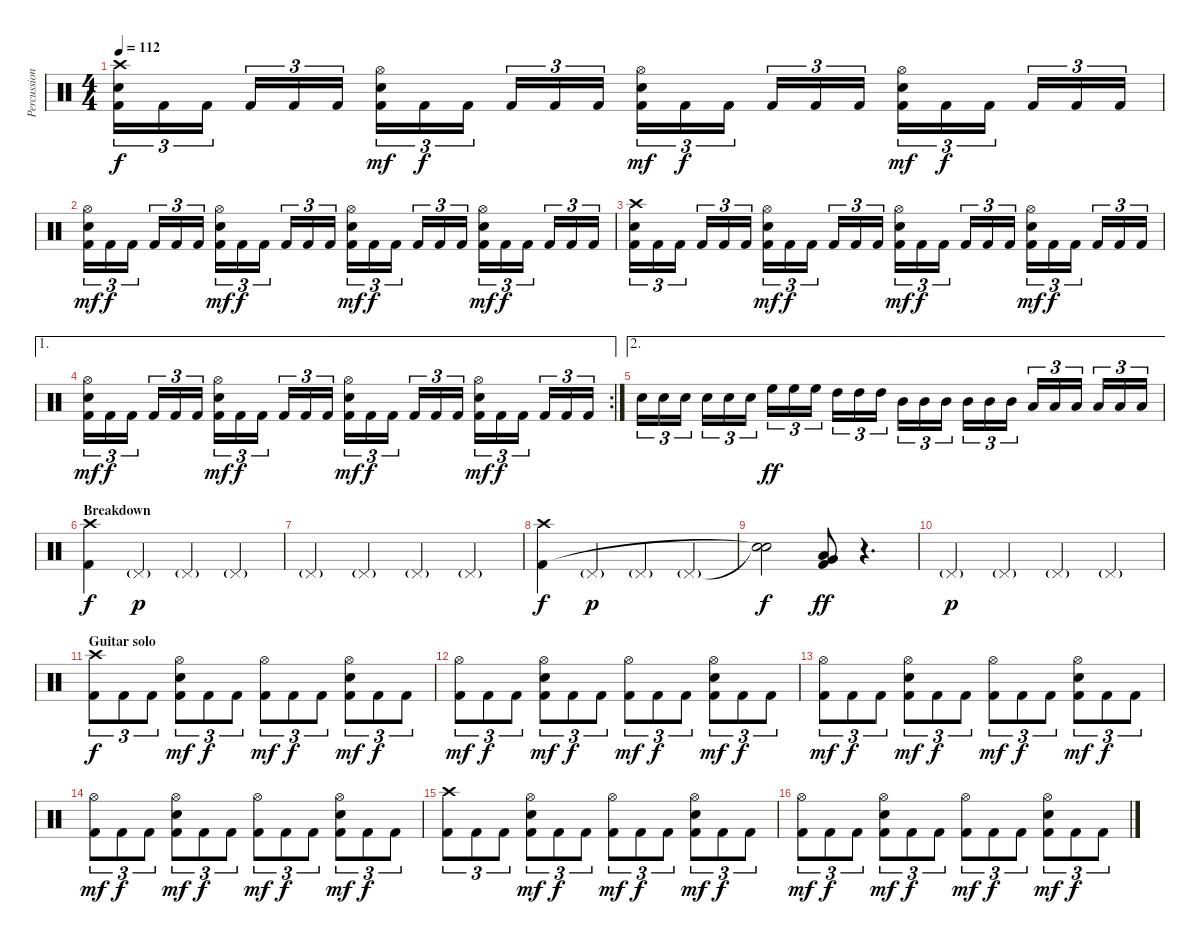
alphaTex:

\track ("Percussion" "Percussion") {instrument percussion}
\staff {score}
\articulation defaults
\ts (4 4)
\tempo 112
\clef neutral
\ks c
("Crash high (hit)" "Electric Snare (hit)" "Kick (hit) 2").16{tu (3 2) dy f} "Kick (hit) 2".16{tu (3 2)} "Kick (hit) 2".16{tu (3 2)} "Kick (hit) 2".16{tu (3 2)} "Kick (hit) 2".16{tu (3 2)} "Kick (hit) 2".16{tu (3 2)} ("Hi-Hat (open)" "Electric Snare (hit)" "Kick (hit) 2").16{tu (3 2) dy mf} "Kick (hit) 2".16{tu (3 2) dy f} "Kick (hit) 2".16{tu (3 2)} "Kick (hit) 2".16{tu (3 2)} "Kick (hit) 2".16{tu (3 2)} "Kick (hit) 2".16{tu (3 2)} ("Hi-Hat (open)" "Electric Snare (hit)" "Kick (hit) 2").16{tu (3 2) dy mf} "Kick (hit) 2".16{tu (3 2) dy f} "Kick (hit) 2".16{tu (3 2)} "Kick (hit) 2".16{tu (3 2)} "Kick (hit) 2".16{tu (3 2)} "Kick (hit) 2".16{tu (3 2)} ("Hi-Hat (open)" "Electric Snare (hit)" "Kick (hit) 2").16{tu (3 2) dy mf} "Kick (hit) 2".16{tu (3 2) dy f} "Kick (hit) 2".16{tu (3 2)} "Kick (hit) 2".16{tu (3 2)} "Kick (hit) 2".16{tu (3 2)} "Kick (hit) 2".16{tu (3 2)} |
("Hi-Hat (open)" "Electric Snare (hit)" "Kick (hit) 2").16{tu (3 2) dy mf} "Kick (hit) 2".16{tu (3 2) dy f} "Kick (hit) 2".16{tu (3 2)} "Kick (hit) 2".16{tu (3 2)} "Kick (hit) 2".16{tu (3 2)} "Kick (hit) 2".16{tu (3 2)} ("Hi-Hat (open)" "Electric Snare (hit)" "Kick (hit) 2").16{tu (3 2) dy mf} "Kick (hit) 2".16{tu (3 2) dy f} "Kick (hit) 2".16{tu (3 2)} "Kick (hit) 2".16{tu (3 2)} "Kick (hit) 2".16{tu (3 2)} "Kick (hit) 2".16{tu (3 2)} ("Hi-Hat (open)" "Electric Snare (hit)" "Kick (hit) 2").16{tu (3 2) dy mf} "Kick (hit) 2".16{tu (3 2) dy f} "Kick (hit) 2".16{tu (3 2)} "Kick (hit) 2".16{tu (3 2)} "Kick (hit) 2".16{tu (3 2)} "Kick (hit) 2".16{tu (3 2)} ("Hi-Hat (open)" "Electric Snare (hit)" "Kick (hit) 2").16{tu (3 2) dy mf} "Kick (hit) 2".16{tu (3 2) dy f} "Kick (hit) 2".16{tu (3 2)} "Kick (hit) 2".16{tu (3 2)} "Kick (hit) 2".16{tu (3 2)} "Kick (hit) 2".16{tu (3 2)} |
("Crash high (hit)" "Electric Snare (hit)" "Kick (hit) 2").16{tu (3 2)} "Kick (hit) 2".16{tu (3 2)} "Kick (hit) 2".16{tu (3 2)} "Kick (hit) 2".16{tu (3 2)} "Kick (hit) 2".16{tu (3 2)} "Kick (hit) 2".16{tu (3 2)} ("Hi-Hat (open)" "Electric Snare (hit)" "Kick (hit) 2").16{tu (3 2) dy mf} "Kick (hit) 2".16{tu (3 2) dy f} "Kick (hit) 2".16{tu (3 2)} "Kick (hit) 2".16{tu (3 2)} "Kick (hit) 2".16{tu (3 2)} "Kick (hit) 2".16{tu (3 2)} ("Hi-Hat (open)" "Electric Snare (hit)" "Kick (hit) 2").16{tu (3 2) dy mf} "Kick (hit) 2".16{tu (3 2) dy f} "Kick (hit) 2".16{tu (3 2)} "Kick (hit) 2".16{tu (3 2)} "Kick (hit) 2".16{tu (3 2)} "Kick (hit) 2".16{tu (3 2)} ("Hi-Hat (open)" "Electric Snare (hit)" "Kick (hit) 2").16{tu (3 2) dy mf} "Kick (hit) 2".16{tu (3 2) dy f} "Kick (hit) 2".16{tu (3 2)} "Kick (hit) 2".16{tu (3 2)} "Kick (hit) 2".16{tu (3 2)} "Kick (hit) 2".16{tu (3 2)} |
\ae 1
\rc 2
("Hi-Hat (open)" "Electric Snare (hit)" "Kick (hit) 2").16{tu (3 2) dy mf} "Kick (hit) 2".16{tu (3 2) dy f} "Kick (hit) 2".16{tu (3 2)} "Kick (hit) 2".16{tu (3 2)} "Kick (hit) 2".16{tu (3 2)} "Kick (hit) 2".16{tu (3 2)} ("Hi-Hat (open)" "Electric Snare (hit)" "Kick (hit) 2").16{tu (3 2) dy mf} "Kick (hit) 2".16{tu (3 2) dy f} "Kick (hit) 2".16{tu (3 2)} "Kick (hit) 2".16{tu (3 2)} "Kick (hit) 2".16{tu (3 2)} "Kick (hit) 2".16{tu (3 2)} ("Hi-Hat (open)" "Electric Snare (hit)" "Kick (hit) 2").16{tu (3 2) dy mf} "Kick (hit) 2".16{tu (3 2) dy f} "Kick (hit) 2".16{tu (3 2)} "Kick (hit) 2".16{tu (3 2)} "Kick (hit) 2".16{tu (3 2)} "Kick (hit) 2".16{tu (3 2)} ("Hi-Hat (open)" "Electric Snare (hit)" "Kick (hit) 2").16{tu (3 2) dy mf} "Kick (hit) 2".16{tu (3 2) dy f} "Kick (hit) 2".16{tu (3 2)} "Kick (hit) 2".16{tu (3 2)} "Kick (hit) 2".16{tu (3 2)} "Kick (hit) 2".16{tu (3 2)} |
\ae 2 "Electric Snare (hit)".16{tu (3 2)} "Electric Snare (hit)".16{tu (3 2)} "Electric Snare (hit)".16{tu (3 2)} "Electric Snare (hit)".16{tu (3 2)} "Electric Snare (hit)".16{tu (3 2)} "Electric Snare (hit)".16{tu (3 2)} "High Floor Tom (hit)".16{tu (3 2) dy ff} "High Floor Tom (hit)".16{tu (3 2)} "High Floor Tom (hit)".16{tu (3 2)} "High Tom (hit)".16{tu (3 2)} "High Tom (hit)".16{tu (3 2)} "High Tom (hit)".16{tu (3 2)} "Mid Tom (hit)".16{tu (3 2)} "Mid Tom (hit)".16{tu (3 2)} "Mid Tom (hit)".16{tu (3 2)} "Mid Tom (hit)".16{tu (3 2)} "Mid Tom (hit)".16{tu (3 2)} "Mid Tom (hit)".16{tu (3 2)} "Low Tom (hit)".16{tu (3 2)} "Low Tom (hit)".16{tu (3 2)} "Low Tom (hit)".16{tu (3 2)} "Low Tom (hit)".16{tu (3 2)} "Low Tom (hit)".16{tu (3 2)} "Low Tom (hit)".16{tu (3 2)}
|
\section ("" "Breakdown")
("Crash high (hit)" "Kick (hit) 2").4{dy f} "Pedal Hi-Hat (hit)"{g}.4{dy p} "Pedal Hi-Hat (hit)"{g}.4 "Pedal Hi-Hat (hit)"{g}.4 |
"Pedal Hi-Hat (hit)"{g}.4 "Pedal Hi-Hat (hit)"{g}.4 "Pedal Hi-Hat (hit)"{g}.4 "Pedal Hi-Hat (hit)"{g}.4 |
("Crash high (hit)" "Kick (hit) 2").4{dy f} "Pedal Hi-Hat (hit)"{g}.4{dy p} "Pedal Hi-Hat (hit)"{g}.4 "Pedal Hi-Hat (hit)"{g}.4 |
("Snare (hit)"{t} "Snare (hit)"{t}).2{dy f} ("Very Low Tom (hit)" "Low Tom (hit)" "Kick (hit) 2").8{dy ff} r.4{d} |
"Pedal Hi-Hat (hit)"{g}.4{dy p} "Pedal Hi-Hat (hit)"{g}.4 "Pedal Hi-Hat (hit)"{g}.4 "Pedal Hi-Hat (hit)"{g}.4 |
\section ("" "Guitar solo")
("Crash high (hit)" "Kick (hit) 2").8{tu (3 2) dy f} "Kick (hit) 2".8{tu (3 2)} "Kick (hit) 2".8{tu (3 2)} ("Hi-Hat (open)" "Electric Snare (hit)" "Kick (hit) 2").8{tu (3 2) dy mf} "Kick (hit) 2".8{tu (3 2) dy f} "Kick (hit) 2".8{tu (3 2)} ("Hi-Hat (open)" "Kick (hit) 2").8{tu (3 2) dy mf} "Kick (hit) 2".8{tu (3 2) dy f} "Kick (hit) 2".8{tu (3 2)} ("Hi-Hat (open)" "Electric Snare (hit)" "Kick (hit) 2").8{tu (3 2) dy mf} "Kick (hit) 2".8{tu (3 2) dy f} "Kick (hit) 2".8{tu (3 2)} |
("Hi-Hat (open)" "Kick (hit) 2").8{tu (3 2) dy mf} "Kick (hit) 2".8{tu (3 2) dy f} "Kick (hit) 2".8{tu (3 2)} ("Hi-Hat (open)" "Electric Snare (hit)" "Kick (hit) 2").8{tu (3 2) dy mf} "Kick (hit) 2".8{tu (3 2) dy f} "Kick (hit) 2".8{tu (3 2)} ("Hi-Hat (open)" "Kick (hit) 2").8{tu (3 2) dy mf} "Kick (hit) 2".8{tu (3 2) dy f} "Kick (hit) 2".8{tu (3 2)} ("Hi-Hat (open)" "Electric Snare (hit)" "Kick (hit) 2").8{tu (3 2) dy mf} "Kick (hit) 2".8{tu (3 2) dy f} "Kick (hit) 2".8{tu (3 2)} |
("Hi-Hat (open)" "Kick (hit) 2").8{tu (3 2) dy mf} "Kick (hit) 2".8{tu (3 2) dy f} "Kick (hit) 2".8{tu (3 2)} ("Hi-Hat (open)" "Electric Snare (hit)" "Kick (hit) 2").8{tu (3 2) dy mf} "Kick (hit) 2".8{tu (3 2) dy f} "Kick (hit) 2".8{tu (3 2)} ("Hi-Hat (open)" "Kick (hit) 2").8{tu (3 2) dy mf} "Kick (hit) 2".8{tu (3 2) dy f} "Kick (hit) 2".8{tu (3 2)} ("Hi-Hat (open)" "Electric Snare (hit)" "Kick (hit) 2").8{tu (3 2) dy mf} "Kick (hit) 2".8{tu (3 2) dy f} "Kick (hit) 2".8{tu (3 2)} |
("Hi-Hat (open)" "Kick (hit) 2").8{tu (3 2) dy mf} "Kick (hit) 2".8{tu (3 2) dy f} "Kick (hit) 2".8{tu (3 2)} ("Hi-Hat (open)" "Electric Snare (hit)" "Kick (hit) 2").8{tu (3 2) dy mf} "Kick (hit) 2".8{tu (3 2) dy f} "Kick (hit) 2".8{tu (3 2)} ("Hi-Hat (open)" "Kick (hit) 2").8{tu (3 2) dy mf} "Kick (hit) 2".8{tu (3 2) dy f} "Kick (hit) 2".8{tu (3 2)} ("Hi-Hat (open)" "Electric Snare (hit)" "Kick (hit) 2").8{tu (3 2) dy mf} "Kick (hit) 2".8{tu (3 2) dy f} "Kick (hit) 2".8{tu (3 2)} |
("Crash high (hit)" "Kick (hit) 2").8{tu (3 2)} "Kick (hit) 2".8{tu (3 2)} "Kick (hit) 2".8{tu (3 2)} ("Hi-Hat (open)" "Electric Snare (hit)" "Kick (hit) 2").8{tu (3 2) dy mf} "Kick (hit) 2".8{tu (3 2) dy f} "Kick (hit) 2".8{tu (3 2)} ("Hi-Hat (open)" "Kick (hit) 2").8{tu (3 2) dy mf} "Kick (hit) 2".8{tu (3 2) dy f} "Kick (hit) 2".8{tu (3 2)} ("Hi-Hat (open)" "Electric Snare (hit)" "Kick (hit) 2").8{tu (3 2) dy mf} "Kick (hit) 2".8{tu (3 2) dy f} "Kick (hit) 2".8{tu (3 2)} |
("Hi-Hat (open)" "Kick (hit) 2").8{tu (3 2) dy mf} "Kick (hit) 2".8{tu (3 2) dy f} "Kick (hit) 2".8{tu (3 2)} ("Hi-Hat (open)" "Electric Snare (hit)" "Kick (hit) 2").8{tu (3 2) dy mf} "Kick (hit) 2".8{tu (3 2) dy f} "Kick (hit) 2".8{tu (3 2)} ("Hi-Hat (open)" "Kick (hit) 2").8{tu (3 2) dy mf} "Kick (hit) 2".8{tu (3 2) dy f} "Kick (hit) 2".8{tu (3 2)} ("Hi-Hat (open)" "Electric Snare (hit)" "Kick (hit) 2").8{tu (3 2) dy mf} "Kick (hit) 2".8{tu (3 2) dy f} "Kick (hit) 2".8{tu (3 2)}
